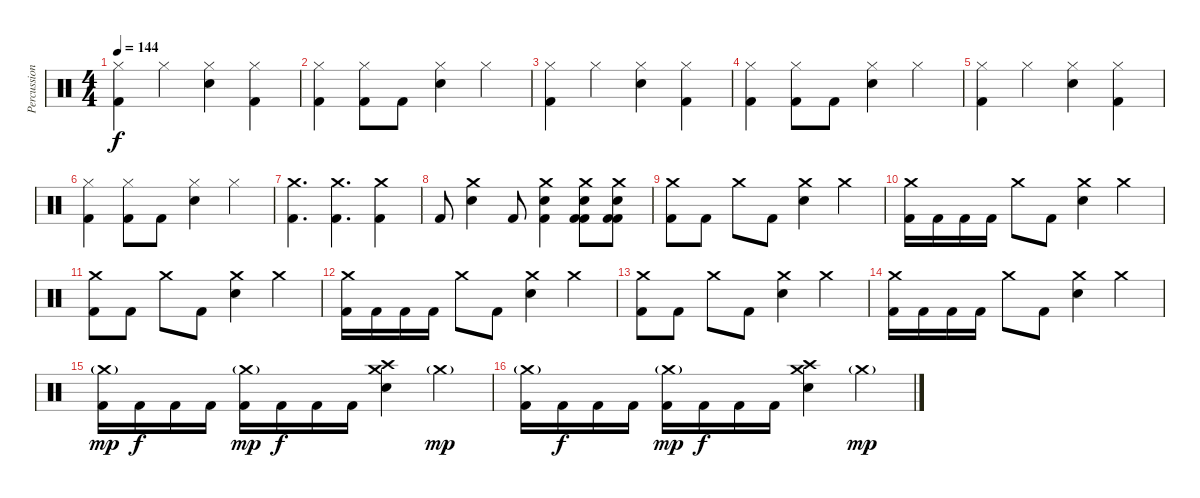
\track ("Percussion" "Percussion") {instrument percussion}
\staff {score}
\articulation defaults
\ts (4 4)
\tempo 144
\clef neutral
\ks c
("Hi-Hat (closed)" "Kick (hit) 2").4{dy f} "Hi-Hat (closed)".4 ("Hi-Hat (closed)" "Electric Snare (hit)").4 ("Hi-Hat (closed)" "Kick (hit) 2").4 |
("Hi-Hat (closed)" "Kick (hit) 2").4 ("Hi-Hat (closed)" "Kick (hit) 2").8 "Kick (hit) 2".8 ("Hi-Hat (closed)" "Electric Snare (hit)").4 "Hi-Hat (closed)".4 |
("Hi-Hat (closed)" "Kick (hit) 2").4 "Hi-Hat (closed)".4 ("Hi-Hat (closed)" "Electric Snare (hit)").4 ("Hi-Hat (closed)" "Kick (hit) 2").4 |
("Hi-Hat (closed)" "Kick (hit) 2").4 ("Hi-Hat (closed)" "Kick (hit) 2").8 "Kick (hit) 2".8 ("Hi-Hat (closed)" "Electric Snare (hit)").4 "Hi-Hat (closed)".4 |
("Hi-Hat (closed)" "Kick (hit) 2").4 "Hi-Hat (closed)".4 ("Hi-Hat (closed)" "Electric Snare (hit)").4 ("Hi-Hat (closed)" "Kick (hit) 2").4 |
("Hi-Hat (closed)" "Kick (hit) 2").4 ("Hi-Hat (closed)" "Kick (hit) 2").8 "Kick (hit) 2".8 ("Hi-Hat (closed)" "Electric Snare (hit)").4 "Hi-Hat (closed)".4 |
("Crash medium (hit)" "Kick (hit) 2").4{d} ("Crash medium (hit)" "Kick (hit) 2").4{d} ("Crash medium (hit)" "Kick (hit) 2").4 |
"Kick (hit) 2".8 ("Electric Snare (hit)" "Crash medium (hit)").4 "Kick (hit) 2".8 ("Electric Snare (hit)" "Kick (hit) 2" "Crash medium (hit)").4 ("Electric Snare (hit)" "Kick (hit) 2" "Crash medium (hit)" "Kick (hit) 2").8 ("Electric Snare (hit)" "Kick (hit) 2" "Crash medium (hit)" "Kick (hit) 2").8 |
("Kick (hit) 2" "Crash medium (hit)").8 "Kick (hit) 2".8 "Crash medium (hit)".8 "Kick (hit) 2".8 ("Electric Snare (hit)" "Crash medium (hit)").4 "Crash medium (hit)".4 |
("Kick (hit) 2" "Crash medium (hit)").16 "Kick (hit) 2".16 "Kick (hit) 2".16 "Kick (hit) 2".16 "Crash medium (hit)".8 "Kick (hit) 2".8 ("Electric Snare (hit)" "Crash medium (hit)").4 "Crash medium (hit)".4 |
("Kick (hit) 2" "Crash medium (hit)").8 "Kick (hit) 2".8 "Crash medium (hit)".8 "Kick (hit) 2".8 ("Electric Snare (hit)" "Crash medium (hit)").4 "Crash medium (hit)".4 |
("Kick (hit) 2" "Crash medium (hit)").16 "Kick (hit) 2".16 "Kick (hit) 2".16 "Kick (hit) 2".16 "Crash medium (hit)".8 "Kick (hit) 2".8 ("Electric Snare (hit)" "Crash medium (hit)").4 "Crash medium (hit)".4 |
("Kick (hit) 2" "Crash medium (hit)").8 "Kick (hit) 2".8 "Crash medium (hit)".8 "Kick (hit) 2".8 ("Electric Snare (hit)" "Crash medium (hit)").4 "Crash medium (hit)".4 |
("Kick (hit) 2" "Crash medium (hit)").16 "Kick (hit) 2".16 "Kick (hit) 2".16 "Kick (hit) 2".16 "Crash medium (hit)".8 "Kick (hit) 2".8 ("Electric Snare (hit)" "Crash medium (hit)").4 "Crash medium (hit)".4 |
("Kick (hit) 2" "Crash medium (hit)"{g}).16{dy mp} "Kick (hit) 2".16{dy f} "Kick (hit) 2".16 "Kick (hit) 2".16 ("Kick (hit) 2" "Crash medium (hit)"{g}).16{dy mp} "Kick (hit) 2".16{dy f} "Kick (hit) 2".16 "Kick (hit) 2".16 ("Electric Snare (hit)" "Crash medium (hit)" "Crash high (hit)").4 "Crash medium (hit)"{g}.4{dy mp} |
("Kick (hit) 2" "Crash medium (hit)"{g}).16 "Kick (hit) 2".16{dy f} "Kick (hit) 2".16 "Kick (hit) 2".16 ("Kick (hit) 2" "Crash medium (hit)"{g}).16{dy mp} "Kick (hit) 2".16{dy f} "Kick (hit) 2".16 "Kick (hit) 2".16 ("Electric Snare (hit)" "Crash medium (hit)" "Crash high (hit)").4 "Crash medium (hit)"{g}.4{dy mp}
